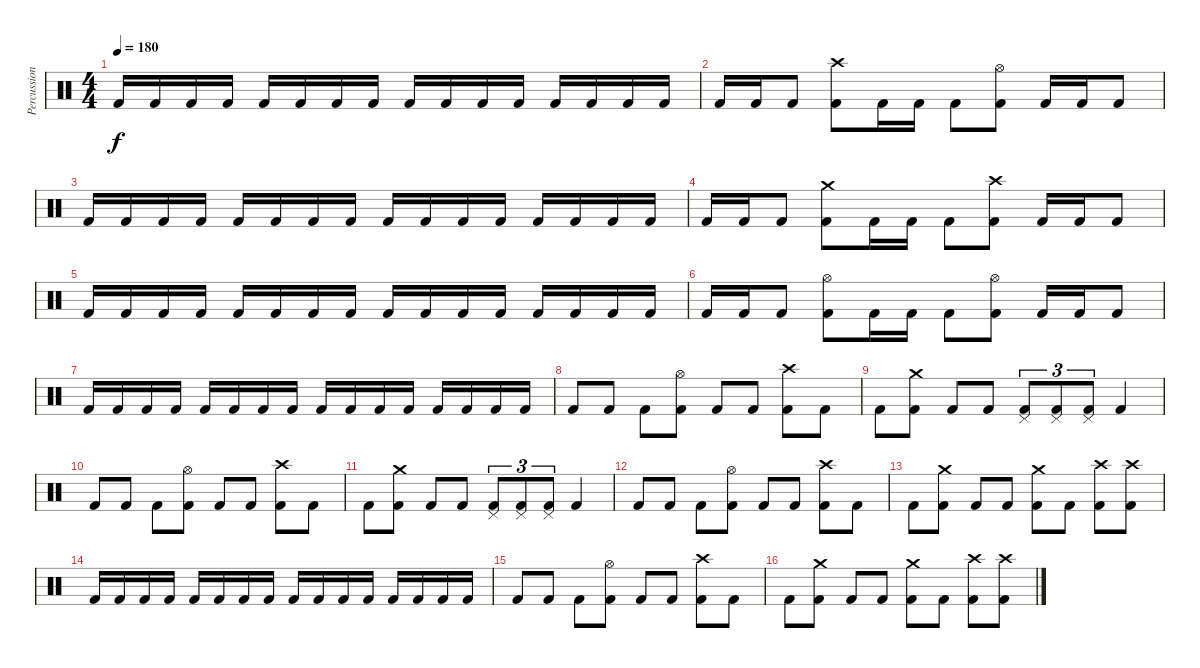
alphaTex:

\track ("Percussion" "Percussion") {instrument percussion}
\staff {score}
\articulation defaults
\ts (4 4)
\tempo 180
\clef neutral
\ks c "Kick (hit) 2".16{dy f} "Kick (hit) 2".16 "Kick (hit) 2".16 "Kick (hit) 2".16 "Kick (hit) 2".16 "Kick (hit) 2".16 "Kick (hit) 2".16 "Kick (hit) 2".16 "Kick (hit) 2".16 "Kick (hit) 2".16 "Kick (hit) 2".16 "Kick (hit) 2".16 "Kick (hit) 2".16 "Kick (hit) 2".16 "Kick (hit) 2".16 "Kick (hit) 2".16
|
"Kick (hit) 2".16 "Kick (hit) 2".16 "Kick (hit) 2".8 ("Kick (hit) 2" "Crash high (hit)").8 "Kick (hit) 2".16 "Kick (hit) 2".16 "Kick (hit) 2".8 ("Kick (hit) 2" "Hi-Hat (open)").8 "Kick (hit) 2".16 "Kick (hit) 2".16 "Kick (hit) 2".8 |
"Kick (hit) 2".16 "Kick (hit) 2".16 "Kick (hit) 2".16 "Kick (hit) 2".16 "Kick (hit) 2".16 "Kick (hit) 2".16 "Kick (hit) 2".16 "Kick (hit) 2".16 "Kick (hit) 2".16 "Kick (hit) 2".16 "Kick (hit) 2".16 "Kick (hit) 2".16 "Kick (hit) 2".16 "Kick (hit) 2".16 "Kick (hit) 2".16 "Kick (hit) 2".16 |
"Kick (hit) 2".16 "Kick (hit) 2".16 "Kick (hit) 2".8 ("Kick (hit) 2" "Crash medium (hit)").8 "Kick (hit) 2".16 "Kick (hit) 2".16 "Kick (hit) 2".8 ("Kick (hit) 2" "Crash high (hit)").8 "Kick (hit) 2".16 "Kick (hit) 2".16 "Kick (hit) 2".8 |
"Kick (hit) 2".16 "Kick (hit) 2".16 "Kick (hit) 2".16 "Kick (hit) 2".16 "Kick (hit) 2".16 "Kick (hit) 2".16 "Kick (hit) 2".16 "Kick (hit) 2".16 "Kick (hit) 2".16 "Kick (hit) 2".16 "Kick (hit) 2".16 "Kick (hit) 2".16 "Kick (hit) 2".16 "Kick (hit) 2".16 "Kick (hit) 2".16 "Kick (hit) 2".16 |
"Kick (hit) 2".16 "Kick (hit) 2".16 "Kick (hit) 2".8 ("Kick (hit) 2" "Hi-Hat (open)").8 "Kick (hit) 2".16 "Kick (hit) 2".16 "Kick (hit) 2".8 ("Kick (hit) 2" "Hi-Hat (open)").8 "Kick (hit) 2".16 "Kick (hit) 2".16 "Kick (hit) 2".8 |
"Kick (hit) 2".16 "Kick (hit) 2".16 "Kick (hit) 2".16 "Kick (hit) 2".16 "Kick (hit) 2".16 "Kick (hit) 2".16 "Kick (hit) 2".16 "Kick (hit) 2".16 "Kick (hit) 2".16 "Kick (hit) 2".16 "Kick (hit) 2".16 "Kick (hit) 2".16 "Kick (hit) 2".16 "Kick (hit) 2".16 "Kick (hit) 2".16 "Kick (hit) 2".16 |
"Kick (hit) 2".8 "Kick (hit) 2".8 "Kick (hit) 2".8 ("Kick (hit) 2" "Hi-Hat (open)").8 "Kick (hit) 2".8 "Kick (hit) 2".8 ("Kick (hit) 2" "Crash high (hit)").8 "Kick (hit) 2".8 |
"Kick (hit) 2".8 ("Kick (hit) 2" "Crash medium (hit)").8 "Kick (hit) 2".8 "Kick (hit) 2".8 ("Kick (hit) 2" "Pedal Hi-Hat (hit)").8{tu (3 2)} ("Kick (hit) 2" "Pedal Hi-Hat (hit)").8{tu (3 2)} ("Kick (hit) 2" "Pedal Hi-Hat (hit)").8{tu (3 2)} "Kick (hit) 2".4 |
"Kick (hit) 2".8 "Kick (hit) 2".8 "Kick (hit) 2".8 ("Kick (hit) 2" "Hi-Hat (open)").8 "Kick (hit) 2".8 "Kick (hit) 2".8 ("Kick (hit) 2" "Crash high (hit)").8 "Kick (hit) 2".8 |
"Kick (hit) 2".8 ("Kick (hit) 2" "Crash medium (hit)").8 "Kick (hit) 2".8 "Kick (hit) 2".8 ("Kick (hit) 2" "Pedal Hi-Hat (hit)").8{tu (3 2)} ("Kick (hit) 2" "Pedal Hi-Hat (hit)").8{tu (3 2)} ("Kick (hit) 2" "Pedal Hi-Hat (hit)").8{tu (3 2)} "Kick (hit) 2".4 |
"Kick (hit) 2".8 "Kick (hit) 2".8 "Kick (hit) 2".8 ("Kick (hit) 2" "Hi-Hat (open)").8 "Kick (hit) 2".8 "Kick (hit) 2".8 ("Kick (hit) 2" "Crash high (hit)").8 "Kick (hit) 2".8 |
"Kick (hit) 2".8 ("Kick (hit) 2" "Crash medium (hit)").8 "Kick (hit) 2".8 "Kick (hit) 2".8 ("Kick (hit) 2" "Crash medium (hit)").8 "Kick (hit) 2".8 ("Kick (hit) 2" "Crash high (hit)").8 ("Kick (hit) 2" "Crash high (hit)").8 |
"Kick (hit) 2".16 "Kick (hit) 2".16 "Kick (hit) 2".16 "Kick (hit) 2".16 "Kick (hit) 2".16 "Kick (hit) 2".16 "Kick (hit) 2".16 "Kick (hit) 2".16 "Kick (hit) 2".16 "Kick (hit) 2".16 "Kick (hit) 2".16 "Kick (hit) 2".16 "Kick (hit) 2".16 "Kick (hit) 2".16 "Kick (hit) 2".16 "Kick (hit) 2".16 |
"Kick (hit) 2".8 "Kick (hit) 2".8 "Kick (hit) 2".8 ("Kick (hit) 2" "Hi-Hat (open)").8 "Kick (hit) 2".8 "Kick (hit) 2".8 ("Kick (hit) 2" "Crash high (hit)").8 "Kick (hit) 2".8 |
"Kick (hit) 2".8 ("Kick (hit) 2" "Crash medium (hit)").8 "Kick (hit) 2".8 "Kick (hit) 2".8 ("Kick (hit) 2" "Crash medium (hit)").8 "Kick (hit) 2".8 ("Kick (hit) 2" "Crash high (hit)").8 ("Kick (hit) 2" "Crash high (hit)").8
